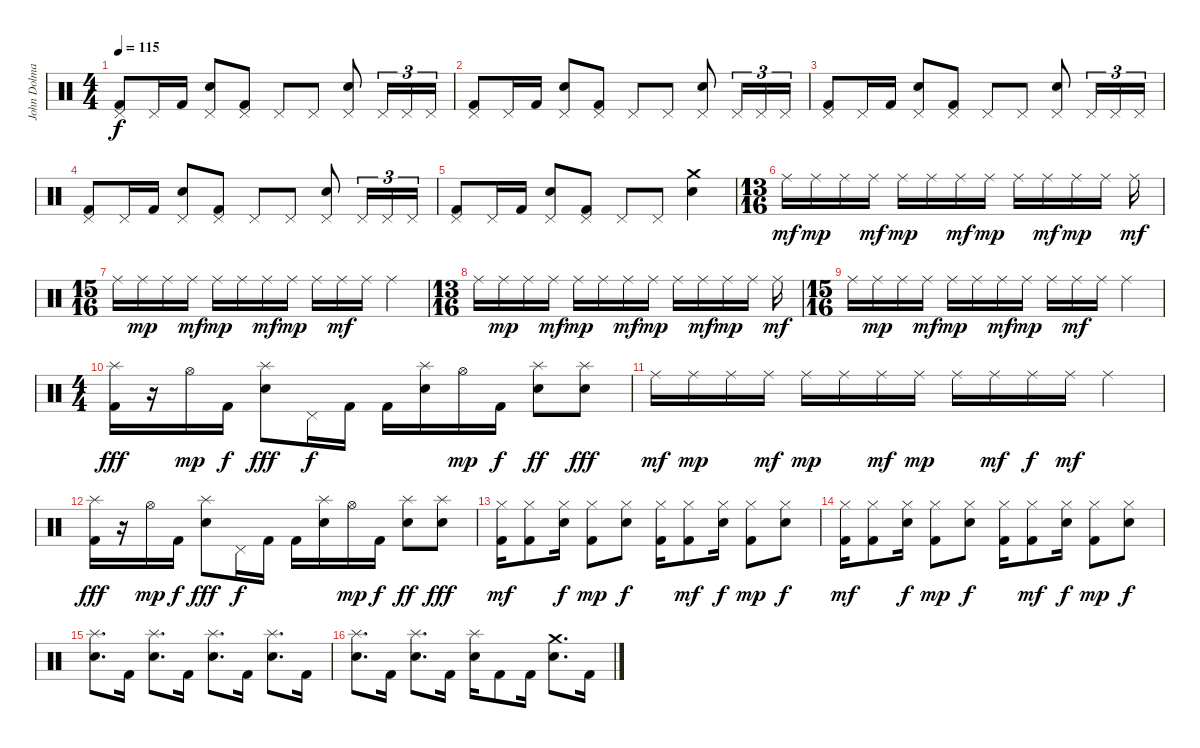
\track ("John Dolmayan" "John Dolma") {instrument percussion}
\staff {score}
\articulation defaults
\ts (4 4)
\tempo 115
\clef neutral
\ks c
("Pedal Hi-Hat (hit)" "Kick (hit) 2").8{dy f} "Pedal Hi-Hat (hit)".16 "Kick (hit) 2".16 ("Pedal Hi-Hat (hit)" "Electric Snare (hit)").8 ("Pedal Hi-Hat (hit)" "Kick (hit) 2").8 "Pedal Hi-Hat (hit)".8 "Pedal Hi-Hat (hit)".8 ("Pedal Hi-Hat (hit)" "Electric Snare (hit)").8 "Pedal Hi-Hat (hit)".16{tu (3 2)} "Pedal Hi-Hat (hit)".16{tu (3 2)} "Pedal Hi-Hat (hit)".16{tu (3 2)} |
("Pedal Hi-Hat (hit)" "Kick (hit) 2").8 "Pedal Hi-Hat (hit)".16 "Kick (hit) 2".16 ("Pedal Hi-Hat (hit)" "Electric Snare (hit)").8 ("Pedal Hi-Hat (hit)" "Kick (hit) 2").8 "Pedal Hi-Hat (hit)".8 "Pedal Hi-Hat (hit)".8 ("Pedal Hi-Hat (hit)" "Electric Snare (hit)").8 "Pedal Hi-Hat (hit)".16{tu (3 2)} "Pedal Hi-Hat (hit)".16{tu (3 2)} "Pedal Hi-Hat (hit)".16{tu (3 2)} |
("Pedal Hi-Hat (hit)" "Kick (hit) 2").8 "Pedal Hi-Hat (hit)".16 "Kick (hit) 2".16 ("Pedal Hi-Hat (hit)" "Electric Snare (hit)").8 ("Pedal Hi-Hat (hit)" "Kick (hit) 2").8 "Pedal Hi-Hat (hit)".8 "Pedal Hi-Hat (hit)".8 ("Pedal Hi-Hat (hit)" "Electric Snare (hit)").8 "Pedal Hi-Hat (hit)".16{tu (3 2)} "Pedal Hi-Hat (hit)".16{tu (3 2)} "Pedal Hi-Hat (hit)".16{tu (3 2)} |
("Pedal Hi-Hat (hit)" "Kick (hit) 2").8 "Pedal Hi-Hat (hit)".16 "Kick (hit) 2".16 ("Pedal Hi-Hat (hit)" "Electric Snare (hit)").8 ("Pedal Hi-Hat (hit)" "Kick (hit) 2").8 "Pedal Hi-Hat (hit)".8 "Pedal Hi-Hat (hit)".8 ("Pedal Hi-Hat (hit)" "Electric Snare (hit)").8 "Pedal Hi-Hat (hit)".16{tu (3 2)} "Pedal Hi-Hat (hit)".16{tu (3 2)} "Pedal Hi-Hat (hit)".16{tu (3 2)} |
("Pedal Hi-Hat (hit)" "Kick (hit) 2").8 "Pedal Hi-Hat (hit)".16 "Kick (hit) 2".16 ("Pedal Hi-Hat (hit)" "Electric Snare (hit)").8 ("Pedal Hi-Hat (hit)" "Kick (hit) 2").8 "Pedal Hi-Hat (hit)".8 "Pedal Hi-Hat (hit)".8 ("Crash medium (hit)" "Electric Snare (hit)").4 |
\ts (13 16)
"Ride (middle)".16{dy mf} "Ride (middle)".16{dy mp} "Ride (middle)".16 "Ride (middle)".16{dy mf} "Ride (middle)".16{dy mp} "Ride (middle)".16 "Ride (middle)".16{dy mf} "Ride (middle)".16{dy mp} "Ride (middle)".16 "Ride (middle)".16{dy mf} "Ride (middle)".16{dy mp} "Ride (middle)".16 "Ride (middle)".16{dy mf} |
\ts (15 16)
"Ride (middle)".16 "Ride (middle)".16{dy mp} "Ride (middle)".16 "Ride (middle)".16{dy mf} "Ride (middle)".16{dy mp} "Ride (middle)".16 "Ride (middle)".16{dy mf} "Ride (middle)".16{dy mp} "Ride (middle)".16 "Ride (middle)".16{dy mf} "Ride (middle)".16 "Ride (middle)".4 |
\ts (13 16)
"Ride (middle)".16 "Ride (middle)".16{dy mp} "Ride (middle)".16 "Ride (middle)".16{dy mf} "Ride (middle)".16{dy mp} "Ride (middle)".16 "Ride (middle)".16{dy mf} "Ride (middle)".16{dy mp} "Ride (middle)".16 "Ride (middle)".16{dy mf} "Ride (middle)".16{dy mp} "Ride (middle)".16 "Ride (middle)".16{dy mf} |
\ts (15 16)
"Ride (middle)".16 "Ride (middle)".16{dy mp} "Ride (middle)".16 "Ride (middle)".16{dy mf} "Ride (middle)".16{dy mp} "Ride (middle)".16 "Ride (middle)".16{dy mf} "Ride (middle)".16{dy mp} "Ride (middle)".16 "Ride (middle)".16{dy mf} "Ride (middle)".16 "Ride (middle)".4 |
\ts (4 4)
("Splash (hit)" "Kick (hit) 2").16{dy fff} r.16 "Hi-Hat (open)".16{dy mp} "Kick (hit) 2".16{dy f} ("Splash (hit)" "Electric Snare (hit)").8{dy fff} "Pedal Hi-Hat (hit)".16{dy f} "Kick (hit) 2".16 "Kick (hit) 2".16 ("Splash (hit)" "Electric Snare (hit)").16 "Hi-Hat (open)".16{dy mp} "Kick (hit) 2".16{dy f} ("Splash (hit)" "Electric Snare (hit)").8{dy ff} ("Splash (hit)" "Electric Snare (hit)").8{dy fff} |
"Ride (middle)".16{dy mf} "Ride (middle)".16{dy mp} "Ride (middle)".16 "Ride (middle)".16{dy mf} "Ride (middle)".16{dy mp} "Ride (middle)".16 "Ride (middle)".16{dy mf} "Ride (middle)".16{dy mp} "Ride (middle)".16 "Ride (middle)".16{dy mf} "Ride (middle)".16{dy f} "Ride (middle)".16{dy mf} "Ride (middle)".4 |
("Splash (hit)" "Kick (hit) 2").16{dy fff} r.16 "Hi-Hat (open)".16{dy mp} "Kick (hit) 2".16{dy f} ("Splash (hit)" "Electric Snare (hit)").8{dy fff} "Pedal Hi-Hat (hit)".16{dy f} "Kick (hit) 2".16 "Kick (hit) 2".16 ("Splash (hit)" "Electric Snare (hit)").16 "Hi-Hat (open)".16{dy mp} "Kick (hit) 2".16{dy f} ("Splash (hit)" "Electric Snare (hit)").8{dy ff} ("Splash (hit)" "Electric Snare (hit)").8{dy fff} |
("Hi-Hat (closed)" "Kick (hit) 2").16{dy mf} ("Hi-Hat (closed)" "Kick (hit) 2").8 ("Hi-Hat (closed)" "Electric Snare (hit)").16{dy f} ("Hi-Hat (closed)" "Kick (hit) 2").8{dy mp} ("Hi-Hat (closed)" "Electric Snare (hit)").8{dy f} ("Hi-Hat (closed)" "Kick (hit) 2").16 ("Hi-Hat (closed)" "Kick (hit) 2").8{dy mf} ("Hi-Hat (closed)" "Electric Snare (hit)").16{dy f} ("Hi-Hat (closed)" "Kick (hit) 2").8{dy mp} ("Hi-Hat (closed)" "Electric Snare (hit)").8{dy f} |
("Hi-Hat (closed)" "Kick (hit) 2").16{dy mf} ("Hi-Hat (closed)" "Kick (hit) 2").8 ("Hi-Hat (closed)" "Electric Snare (hit)").16{dy f} ("Hi-Hat (closed)" "Kick (hit) 2").8{dy mp} ("Hi-Hat (closed)" "Electric Snare (hit)").8{dy f} ("Hi-Hat (closed)" "Kick (hit) 2").16 ("Hi-Hat (closed)" "Kick (hit) 2").8{dy mf} ("Hi-Hat (closed)" "Electric Snare (hit)").16{dy f} ("Hi-Hat (closed)" "Kick (hit) 2").8{dy mp} ("Hi-Hat (closed)" "Electric Snare (hit)").8{dy f} |
("Splash (hit)" "Electric Snare (hit)").8{d} "Kick (hit) 2".16 ("Splash (hit)" "Electric Snare (hit)").8{d} "Kick (hit) 2".16 ("Splash (hit)" "Electric Snare (hit)").8{d} "Kick (hit) 2".16 ("Splash (hit)" "Electric Snare (hit)").8{d} "Kick (hit) 2".16 |
("Splash (hit)" "Electric Snare (hit)").8{d} "Kick (hit) 2".16 ("Splash (hit)" "Electric Snare (hit)").8{d} "Kick (hit) 2".16 ("Splash (hit)" "Electric Snare (hit)").16 "Kick (hit) 2".8 "Kick (hit) 2".16 ("Crash medium (hit)" "Electric Snare (hit)").8{d} "Kick (hit) 2".16
